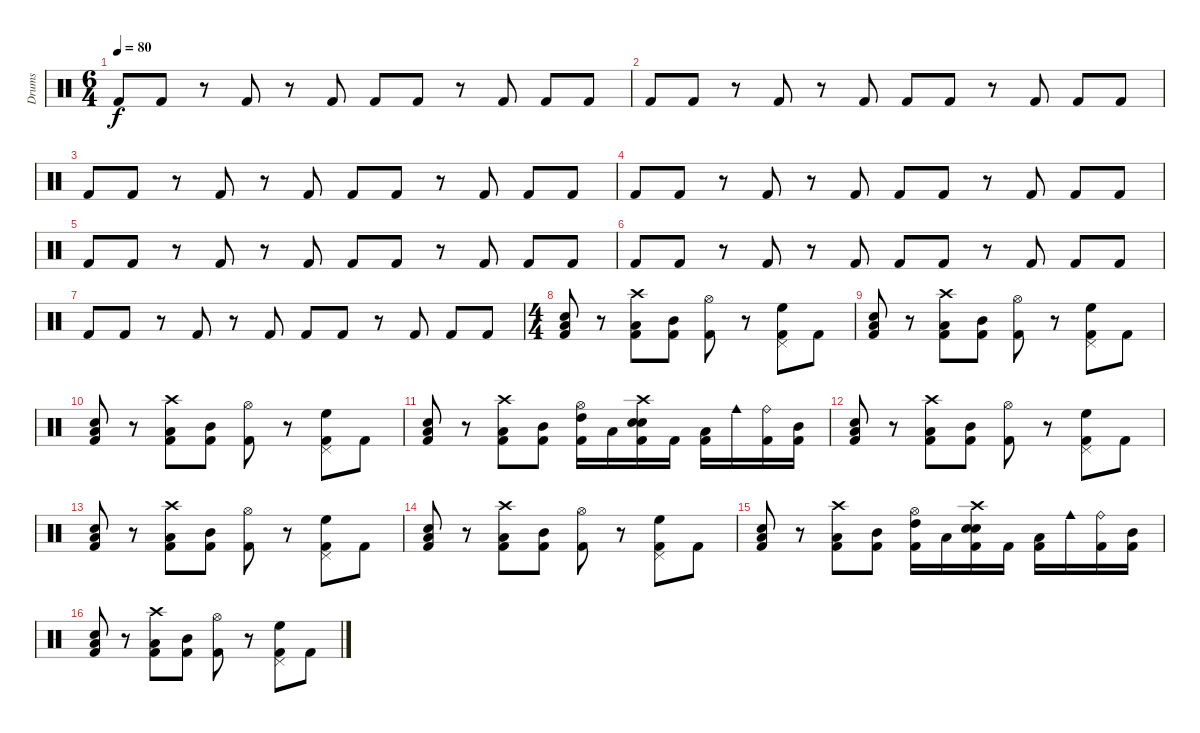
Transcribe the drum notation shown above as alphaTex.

\track ("Drums" "Drums") {instrument percussion}
\staff {score}
\articulation defaults
\ts (6 4)
\tempo 80
\clef neutral
\ks c "Kick (hit) 2".8{dy f} "Kick (hit) 2".8
r.8 "Kick (hit) 2".8 r.8 "Kick (hit) 2".8 "Kick (hit) 2".8 "Kick (hit) 2".8 r.8 "Kick (hit) 2".8 "Kick (hit) 2".8 "Kick (hit) 2".8 |
"Kick (hit) 2".8 "Kick (hit) 2".8 r.8 "Kick (hit) 2".8 r.8 "Kick (hit) 2".8 "Kick (hit) 2".8 "Kick (hit) 2".8 r.8 "Kick (hit) 2".8 "Kick (hit) 2".8 "Kick (hit) 2".8 |
"Kick (hit) 2".8 "Kick (hit) 2".8 r.8 "Kick (hit) 2".8 r.8 "Kick (hit) 2".8 "Kick (hit) 2".8 "Kick (hit) 2".8 r.8 "Kick (hit) 2".8 "Kick (hit) 2".8 "Kick (hit) 2".8 |
"Kick (hit) 2".8 "Kick (hit) 2".8 r.8 "Kick (hit) 2".8 r.8 "Kick (hit) 2".8 "Kick (hit) 2".8 "Kick (hit) 2".8 r.8 "Kick (hit) 2".8 "Kick (hit) 2".8 "Kick (hit) 2".8 |
"Kick (hit) 2".8 "Kick (hit) 2".8 r.8 "Kick (hit) 2".8 r.8 "Kick (hit) 2".8 "Kick (hit) 2".8 "Kick (hit) 2".8 r.8 "Kick (hit) 2".8 "Kick (hit) 2".8 "Kick (hit) 2".8 |
"Kick (hit) 2".8 "Kick (hit) 2".8 r.8 "Kick (hit) 2".8 r.8 "Kick (hit) 2".8 "Kick (hit) 2".8 "Kick (hit) 2".8 r.8 "Kick (hit) 2".8 "Kick (hit) 2".8 "Kick (hit) 2".8 |
"Kick (hit) 2".8 "Kick (hit) 2".8 r.8 "Kick (hit) 2".8 r.8 "Kick (hit) 2".8 "Kick (hit) 2".8 "Kick (hit) 2".8 r.8 "Kick (hit) 2".8 "Kick (hit) 2".8 "Kick (hit) 2".8 |
\ts (4 4)
("Kick (hit) 2" "Electric Snare (hit)" "Low Floor Tom (hit)").8 r.8 ("Kick (hit) 2" "Low Floor Tom (hit)" "Crash high (hit)").8 ("Kick (hit) 2" "Mid Tom (hit)").8 ("Kick (hit) 2" "Hi-Hat (open)").8 r.8 ("Kick (hit) 2" "Pedal Hi-Hat (hit)" "High Floor Tom (hit)").8 "Kick (hit) 2".8 |
("Kick (hit) 2" "Electric Snare (hit)" "Low Floor Tom (hit)").8 r.8 ("Kick (hit) 2" "Low Floor Tom (hit)" "Crash high (hit)").8 ("Kick (hit) 2" "Mid Tom (hit)").8 ("Kick (hit) 2" "Hi-Hat (open)").8 r.8 ("Kick (hit) 2" "Pedal Hi-Hat (hit)" "High Floor Tom (hit)").8 "Kick (hit) 2".8 |
("Kick (hit) 2" "Electric Snare (hit)" "Low Floor Tom (hit)").8 r.8 ("Kick (hit) 2" "Low Floor Tom (hit)" "Crash high (hit)").8 ("Kick (hit) 2" "Mid Tom (hit)").8 ("Kick (hit) 2" "Hi-Hat (open)").8 r.8 ("Kick (hit) 2" "Pedal Hi-Hat (hit)" "High Floor Tom (hit)").8 "Kick (hit) 2".8 |
("Kick (hit) 2" "Electric Snare (hit)" "Low Floor Tom (hit)").8 r.8 ("Kick (hit) 2" "Low Floor Tom (hit)" "Crash high (hit)").8 ("Kick (hit) 2" "Mid Tom (hit)").8 ("Kick (hit) 2" "Hi-Hat (open)" "High Tom (hit)").16 "Low Tom (hit)".16 ("Kick (hit) 2" "Electric Snare (hit)" "Crash high (hit)" "Electric Snare (hit)").16 "Kick (hit) 2".16 ("Kick (hit) 2" "Low Floor Tom (hit)").16 "Cowbell medium (hit)".16 ("Kick (hit) 2" "Ride (bell)").16 ("Kick (hit) 2" "Mid Tom (hit)").16 |
("Kick (hit) 2" "Electric Snare (hit)" "Low Floor Tom (hit)").8 r.8 ("Kick (hit) 2" "Low Floor Tom (hit)" "Crash high (hit)").8 ("Kick (hit) 2" "Mid Tom (hit)").8 ("Kick (hit) 2" "Hi-Hat (open)").8 r.8 ("Kick (hit) 2" "Pedal Hi-Hat (hit)" "High Floor Tom (hit)").8 "Kick (hit) 2".8 |
("Kick (hit) 2" "Electric Snare (hit)" "Low Floor Tom (hit)").8 r.8 ("Kick (hit) 2" "Low Floor Tom (hit)" "Crash high (hit)").8 ("Kick (hit) 2" "Mid Tom (hit)").8 ("Kick (hit) 2" "Hi-Hat (open)").8 r.8 ("Kick (hit) 2" "Pedal Hi-Hat (hit)" "High Floor Tom (hit)").8 "Kick (hit) 2".8 |
("Kick (hit) 2" "Electric Snare (hit)" "Low Floor Tom (hit)").8 r.8 ("Kick (hit) 2" "Low Floor Tom (hit)" "Crash high (hit)").8 ("Kick (hit) 2" "Mid Tom (hit)").8 ("Kick (hit) 2" "Hi-Hat (open)").8 r.8 ("Kick (hit) 2" "Pedal Hi-Hat (hit)" "High Floor Tom (hit)").8 "Kick (hit) 2".8 |
("Kick (hit) 2" "Electric Snare (hit)" "Low Floor Tom (hit)").8 r.8 ("Kick (hit) 2" "Low Floor Tom (hit)" "Crash high (hit)").8 ("Kick (hit) 2" "Mid Tom (hit)").8 ("Kick (hit) 2" "Hi-Hat (open)" "High Tom (hit)").16 "Low Tom (hit)".16 ("Kick (hit) 2" "Electric Snare (hit)" "Crash high (hit)" "Electric Snare (hit)").16 "Kick (hit) 2".16 ("Kick (hit) 2" "Low Floor Tom (hit)").16 "Cowbell medium (hit)".16 ("Kick (hit) 2" "Ride (bell)").16 ("Kick (hit) 2" "Mid Tom (hit)").16 |
("Kick (hit) 2" "Electric Snare (hit)" "Low Floor Tom (hit)").8 r.8 ("Kick (hit) 2" "Low Floor Tom (hit)" "Crash high (hit)").8 ("Kick (hit) 2" "Mid Tom (hit)").8 ("Kick (hit) 2" "Hi-Hat (open)").8 r.8 ("Kick (hit) 2" "Pedal Hi-Hat (hit)" "High Floor Tom (hit)").8 "Kick (hit) 2".8
